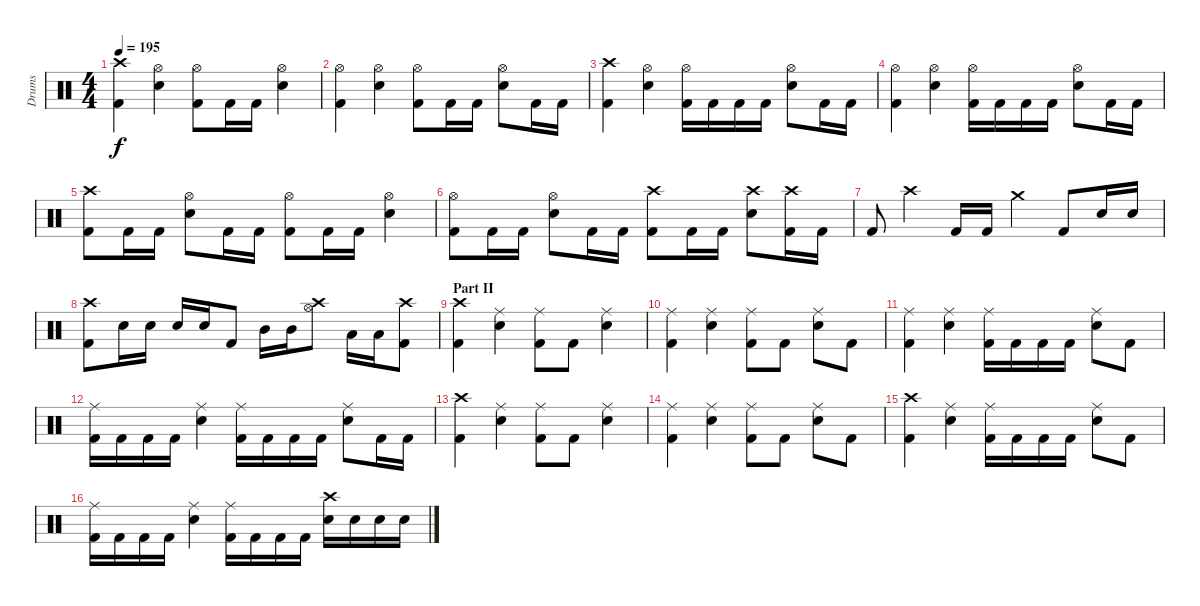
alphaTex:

\track ("Drums" "Drums") {instrument percussion}
\staff {score}
\articulation defaults
\ts (4 4)
\tempo 195
\clef neutral
\ks c
("Crash high (hit)" "Kick (hit) 2").4{dy f} ("Hi-Hat (open)" "Snare (hit) 2").4 ("Hi-Hat (open)" "Kick (hit) 2").8 "Kick (hit) 2".16 "Kick (hit) 2".16 ("Hi-Hat (open)" "Snare (hit) 2").4 |
("Hi-Hat (open)" "Kick (hit) 2").4 ("Hi-Hat (open)" "Snare (hit) 2").4 ("Hi-Hat (open)" "Kick (hit) 2").8 "Kick (hit) 2".16 "Kick (hit) 2".16 ("Hi-Hat (open)" "Snare (hit) 2").8 "Kick (hit) 2".16 "Kick (hit) 2".16 |
("Crash high (hit)" "Kick (hit) 2").4 ("Hi-Hat (open)" "Snare (hit) 2").4 ("Hi-Hat (open)" "Kick (hit) 2").16 "Kick (hit) 2".16 "Kick (hit) 2".16 "Kick (hit) 2".16 ("Hi-Hat (open)" "Snare (hit) 2").8 "Kick (hit) 2".16 "Kick (hit) 2".16 |
("Hi-Hat (open)" "Kick (hit) 2").4 ("Hi-Hat (open)" "Snare (hit) 2").4 ("Hi-Hat (open)" "Kick (hit) 2").16 "Kick (hit) 2".16 "Kick (hit) 2".16 "Kick (hit) 2".16 ("Hi-Hat (open)" "Snare (hit) 2").8 "Kick (hit) 2".16 "Kick (hit) 2".16 |
("Crash high (hit)" "Kick (hit) 2").8 "Kick (hit) 2".16 "Kick (hit) 2".16 ("Hi-Hat (open)" "Snare (hit) 2").8 "Kick (hit) 2".16 "Kick (hit) 2".16 ("Hi-Hat (open)" "Kick (hit) 2").8 "Kick (hit) 2".16 "Kick (hit) 2".16 ("Hi-Hat (open)" "Snare (hit) 2").4 |
("Hi-Hat (open)" "Kick (hit) 2").8 "Kick (hit) 2".16 "Kick (hit) 2".16 ("Hi-Hat (open)" "Snare (hit) 2").8 "Kick (hit) 2".16 "Kick (hit) 2".16 ("Crash high (hit)" "Kick (hit) 2").8 "Kick (hit) 2".16 "Kick (hit) 2".16 ("Crash high (hit)" "Snare (hit) 2").8 ("Crash high (hit)" "Kick (hit) 2").16 "Kick (hit) 2".16 |
"Kick (hit) 2".8 "Crash high (hit)".4 "Kick (hit) 2".16 "Kick (hit) 2".16 "Crash medium (hit)".4 "Kick (hit) 2".8 "Snare (hit) 2".16 "Snare (hit) 2".16 |
("Crash high (hit)" "Kick (hit) 2").8 "Snare (hit) 2".16 "Snare (hit) 2".16 "Snare (hit) 2".16 "Snare (hit) 2".16 "Kick (hit) 2".8 "Mid Tom (hit)".16 "Mid Tom (hit)".16 ("Crash high (hit)" "Hi-Hat (open)").8 "Low Tom (hit)".16 "Low Tom (hit)".16 ("Crash high (hit)" "Kick (hit) 2").8 |
\section ("" "Part II")
("Crash high (hit)" "Kick (hit) 2").4 ("Ride (middle)" "Snare (hit) 2").4 ("Ride (middle)" "Kick (hit) 2").8 "Kick (hit) 2".8 ("Ride (middle)" "Snare (hit) 2").4 |
("Ride (middle)" "Kick (hit) 2").4 ("Ride (middle)" "Snare (hit) 2").4 ("Ride (middle)" "Kick (hit) 2").8 "Kick (hit) 2".8 ("Ride (middle)" "Snare (hit) 2").8 "Kick (hit) 2".8 |
("Ride (middle)" "Kick (hit) 2").4 ("Ride (middle)" "Snare (hit) 2").4 ("Ride (middle)" "Kick (hit) 2").16 "Kick (hit) 2".16 "Kick (hit) 2".16 "Kick (hit) 2".16 ("Ride (middle)" "Snare (hit) 2").8 "Kick (hit) 2".8 |
("Ride (middle)" "Kick (hit) 2").16 "Kick (hit) 2".16 "Kick (hit) 2".16 "Kick (hit) 2".16 ("Ride (middle)" "Snare (hit) 2").4 ("Ride (middle)" "Kick (hit) 2").16 "Kick (hit) 2".16 "Kick (hit) 2".16 "Kick (hit) 2".16 ("Ride (middle)" "Snare (hit) 2").8 "Kick (hit) 2".16 "Kick (hit) 2".16 |
("Crash high (hit)" "Kick (hit) 2").4 ("Ride (middle)" "Snare (hit) 2").4 ("Ride (middle)" "Kick (hit) 2").8 "Kick (hit) 2".8 ("Ride (middle)" "Snare (hit) 2").4 |
("Ride (middle)" "Kick (hit) 2").4 ("Ride (middle)" "Snare (hit) 2").4 ("Ride (middle)" "Kick (hit) 2").8 "Kick (hit) 2".8 ("Ride (middle)" "Snare (hit) 2").8 "Kick (hit) 2".8 |
("Crash high (hit)" "Kick (hit) 2").4 ("Ride (middle)" "Snare (hit) 2").4 ("Ride (middle)" "Kick (hit) 2").16 "Kick (hit) 2".16 "Kick (hit) 2".16 "Kick (hit) 2".16 ("Ride (middle)" "Snare (hit) 2").8 "Kick (hit) 2".8 |
("Ride (middle)" "Kick (hit) 2").16 "Kick (hit) 2".16 "Kick (hit) 2".16 "Kick (hit) 2".16 ("Ride (middle)" "Snare (hit) 2").4 ("Ride (middle)" "Kick (hit) 2").16 "Kick (hit) 2".16 "Kick (hit) 2".16 "Kick (hit) 2".16 ("Crash high (hit)" "Snare (hit) 2").16 "Snare (hit) 2".16 "Snare (hit) 2".16 "Snare (hit) 2".16
